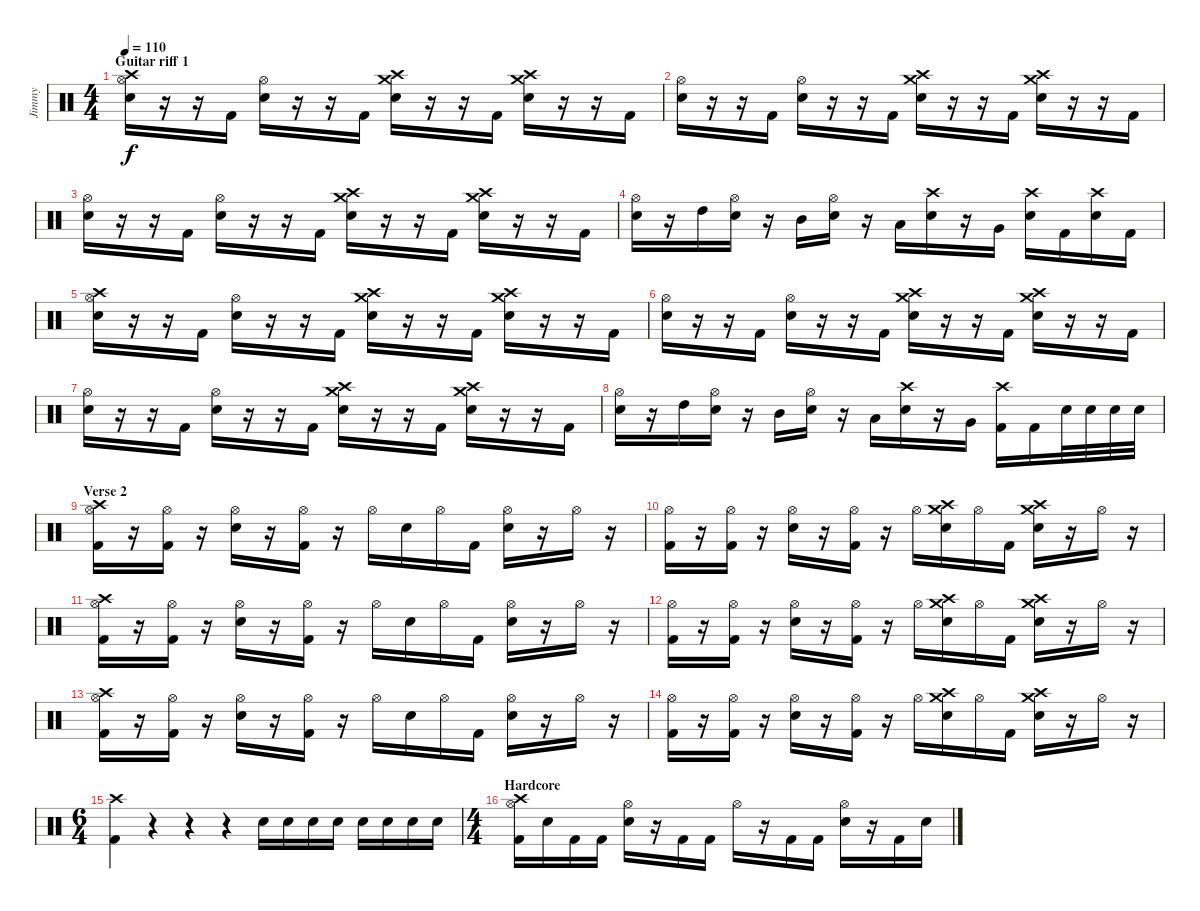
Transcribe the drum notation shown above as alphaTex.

\track ("Jimmy" "Jimmy") {instrument percussion}
\staff {score}
\articulation defaults
\ts (4 4)
\section ("" "Guitar riff 1")
\tempo 110
\clef neutral
\ks c
("Crash high (hit)" "Hi-Hat (open)" "Electric Snare (hit)").16{dy f} r.16 r.16 "Kick (hit) 2".16 ("Hi-Hat (open)" "Electric Snare (hit)").16 r.16 r.16 "Kick (hit) 2".16 ("Crash medium (hit)" "Crash high (hit)" "Electric Snare (hit)").16 r.16 r.16 "Kick (hit) 2".16 ("Crash medium (hit)" "Crash high (hit)" "Electric Snare (hit)").16 r.16 r.16 "Kick (hit) 2".16 |
("Hi-Hat (open)" "Electric Snare (hit)").16 r.16 r.16 "Kick (hit) 2".16 ("Hi-Hat (open)" "Electric Snare (hit)").16 r.16 r.16 "Kick (hit) 2".16 ("Crash medium (hit)" "Crash high (hit)" "Electric Snare (hit)").16 r.16 r.16 "Kick (hit) 2".16 ("Crash medium (hit)" "Crash high (hit)" "Electric Snare (hit)").16 r.16 r.16 "Kick (hit) 2".16 |
("Hi-Hat (open)" "Electric Snare (hit)").16 r.16 r.16 "Kick (hit) 2".16 ("Hi-Hat (open)" "Electric Snare (hit)").16 r.16 r.16 "Kick (hit) 2".16 ("Crash medium (hit)" "Crash high (hit)" "Electric Snare (hit)").16 r.16 r.16 "Kick (hit) 2".16 ("Crash medium (hit)" "Crash high (hit)" "Electric Snare (hit)").16 r.16 r.16 "Kick (hit) 2".16 |
("Hi-Hat (open)" "Electric Snare (hit)").16 r.16 "High Tom (hit)".16 ("Hi-Hat (open)" "Electric Snare (hit)").16 r.16 "Mid Tom (hit)".16 ("Hi-Hat (open)" "Electric Snare (hit)").16 r.16 "Low Tom (hit)".16 ("Crash high (hit)" "Electric Snare (hit)").16 r.16 "Very Low Tom (hit)".16 ("Crash high (hit)" "Electric Snare (hit)").16 "Kick (hit) 2".16 ("Crash high (hit)" "Electric Snare (hit)").16 "Kick (hit) 2".16 |
("Crash high (hit)" "Hi-Hat (open)" "Electric Snare (hit)").16 r.16 r.16 "Kick (hit) 2".16 ("Hi-Hat (open)" "Electric Snare (hit)").16 r.16 r.16 "Kick (hit) 2".16 ("Crash medium (hit)" "Crash high (hit)" "Electric Snare (hit)").16 r.16 r.16 "Kick (hit) 2".16 ("Crash medium (hit)" "Crash high (hit)" "Electric Snare (hit)").16 r.16 r.16 "Kick (hit) 2".16 |
("Hi-Hat (open)" "Electric Snare (hit)").16 r.16 r.16 "Kick (hit) 2".16 ("Hi-Hat (open)" "Electric Snare (hit)").16 r.16 r.16 "Kick (hit) 2".16 ("Crash medium (hit)" "Crash high (hit)" "Electric Snare (hit)").16 r.16 r.16 "Kick (hit) 2".16 ("Crash medium (hit)" "Crash high (hit)" "Electric Snare (hit)").16 r.16 r.16 "Kick (hit) 2".16 |
("Hi-Hat (open)" "Electric Snare (hit)").16 r.16 r.16 "Kick (hit) 2".16 ("Hi-Hat (open)" "Electric Snare (hit)").16 r.16 r.16 "Kick (hit) 2".16 ("Crash medium (hit)" "Crash high (hit)" "Electric Snare (hit)").16 r.16 r.16 "Kick (hit) 2".16 ("Crash medium (hit)" "Crash high (hit)" "Electric Snare (hit)").16 r.16 r.16 "Kick (hit) 2".16 |
("Hi-Hat (open)" "Electric Snare (hit)").16 r.16 "High Tom (hit)".16 ("Hi-Hat (open)" "Electric Snare (hit)").16 r.16 "Mid Tom (hit)".16 ("Hi-Hat (open)" "Electric Snare (hit)").16 r.16 "Low Tom (hit)".16 ("Crash high (hit)" "Electric Snare (hit)").16 r.16 "Very Low Tom (hit)".16 ("Crash high (hit)" "Kick (hit) 2").16 "Kick (hit) 2".16 "Electric Snare (hit)".32 "Electric Snare (hit)".32 "Electric Snare (hit)".32 "Electric Snare (hit)".32 |
\section ("" "Verse 2")
("Crash high (hit)" "Hi-Hat (open)" "Kick (hit) 2").16 r.16 ("Hi-Hat (open)" "Kick (hit) 2").16 r.16 ("Hi-Hat (open)" "Electric Snare (hit)").16 r.16 ("Hi-Hat (open)" "Kick (hit) 2").16 r.16 "Hi-Hat (open)".16 "Electric Snare (hit)".16 "Hi-Hat (open)".16 "Kick (hit) 2".16 ("Hi-Hat (open)" "Electric Snare (hit)").16 r.16 "Hi-Hat (open)".16 r.16 |
("Hi-Hat (open)" "Kick (hit) 2").16 r.16 ("Hi-Hat (open)" "Kick (hit) 2").16 r.16 ("Hi-Hat (open)" "Electric Snare (hit)").16 r.16 ("Hi-Hat (open)" "Kick (hit) 2").16 r.16 "Hi-Hat (open)".16 ("Crash medium (hit)" "Crash high (hit)" "Electric Snare (hit)").16 "Hi-Hat (open)".16 "Kick (hit) 2".16 ("Crash medium (hit)" "Crash high (hit)" "Electric Snare (hit)").16 r.16 "Hi-Hat (open)".16 r.16 |
("Crash high (hit)" "Hi-Hat (open)" "Kick (hit) 2").16 r.16 ("Hi-Hat (open)" "Kick (hit) 2").16 r.16 ("Hi-Hat (open)" "Electric Snare (hit)").16 r.16 ("Hi-Hat (open)" "Kick (hit) 2").16 r.16 "Hi-Hat (open)".16 "Electric Snare (hit)".16 "Hi-Hat (open)".16 "Kick (hit) 2".16 ("Hi-Hat (open)" "Electric Snare (hit)").16 r.16 "Hi-Hat (open)".16 r.16 |
("Hi-Hat (open)" "Kick (hit) 2").16 r.16 ("Hi-Hat (open)" "Kick (hit) 2").16 r.16 ("Hi-Hat (open)" "Electric Snare (hit)").16 r.16 ("Hi-Hat (open)" "Kick (hit) 2").16 r.16 "Hi-Hat (open)".16 ("Crash medium (hit)" "Crash high (hit)" "Electric Snare (hit)").16 "Hi-Hat (open)".16 "Kick (hit) 2".16 ("Crash medium (hit)" "Crash high (hit)" "Electric Snare (hit)").16 r.16 "Hi-Hat (open)".16 r.16 |
("Crash high (hit)" "Hi-Hat (open)" "Kick (hit) 2").16 r.16 ("Hi-Hat (open)" "Kick (hit) 2").16 r.16 ("Hi-Hat (open)" "Electric Snare (hit)").16 r.16 ("Hi-Hat (open)" "Kick (hit) 2").16 r.16 "Hi-Hat (open)".16 "Electric Snare (hit)".16 "Hi-Hat (open)".16 "Kick (hit) 2".16 ("Hi-Hat (open)" "Electric Snare (hit)").16 r.16 "Hi-Hat (open)".16 r.16 |
("Hi-Hat (open)" "Kick (hit) 2").16 r.16 ("Hi-Hat (open)" "Kick (hit) 2").16 r.16 ("Hi-Hat (open)" "Electric Snare (hit)").16 r.16 ("Hi-Hat (open)" "Kick (hit) 2").16 r.16 "Hi-Hat (open)".16 ("Crash medium (hit)" "Crash high (hit)" "Electric Snare (hit)").16 "Hi-Hat (open)".16 "Kick (hit) 2".16 ("Crash medium (hit)" "Crash high (hit)" "Electric Snare (hit)").16 r.16 "Hi-Hat (open)".16 r.16 |
\ts (6 4)
("Crash high (hit)" "Kick (hit) 2").4 r.4 r.4 r.4 "Electric Snare (hit)".16 "Electric Snare (hit)".16 "Electric Snare (hit)".16 "Electric Snare (hit)".16 "Electric Snare (hit)".16 "Electric Snare (hit)".16 "Electric Snare (hit)".16 "Electric Snare (hit)".16 |
\ts (4 4)
\section ("" "Hardcore")
("Crash high (hit)" "Hi-Hat (open)" "Kick (hit) 2").16 "Electric Snare (hit)".16 "Kick (hit) 2".16 "Kick (hit) 2".16 ("Hi-Hat (open)" "Electric Snare (hit)").16 r.16 "Kick (hit) 2".16 "Kick (hit) 2".16 "Hi-Hat (open)".16 r.16 "Kick (hit) 2".16 "Kick (hit) 2".16 ("Hi-Hat (open)" "Electric Snare (hit)").16 r.16 "Kick (hit) 2".16 "Electric Snare (hit)".16
